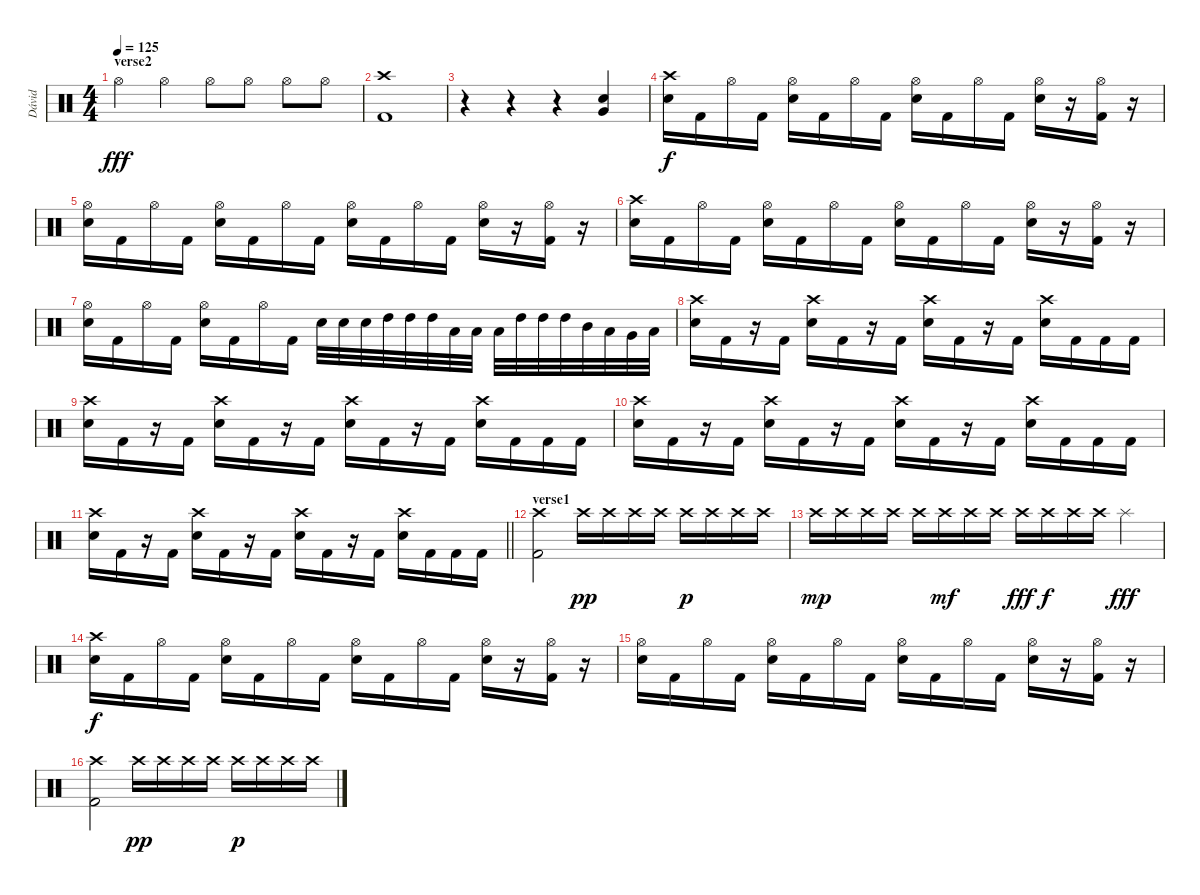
\track ("Dávid" "Dávid") {instrument percussion}
\staff {score}
\articulation defaults
\ts (4 4)
\section ("" "verse2")
\tempo 125
\clef neutral
\ks c "Hi-Hat (open)".4{dy fff} "Hi-Hat (open)".4 "Hi-Hat (open)".8 "Hi-Hat (open)".8 "Hi-Hat (open)".8 "Hi-Hat (open)".8
|
("Crash high (hit)" "Kick (hit) 2").1 |
r.4 r.4 r.4 ("Electric Snare (hit)" "Very Low Tom (hit)").4 |
("Crash high (hit)" "Electric Snare (hit)").16{dy f} "Kick (hit) 2".16 "Hi-Hat (open)".16 "Kick (hit) 2".16 ("Hi-Hat (open)" "Electric Snare (hit)").16 "Kick (hit) 2".16 "Hi-Hat (open)".16 "Kick (hit) 2".16 ("Hi-Hat (open)" "Electric Snare (hit)").16 "Kick (hit) 2".16 "Hi-Hat (open)".16 "Kick (hit) 2".16 ("Hi-Hat (open)" "Electric Snare (hit)").16 r.16 ("Hi-Hat (open)" "Kick (hit) 2").16 r.16 |
("Hi-Hat (open)" "Electric Snare (hit)").16 "Kick (hit) 2".16 "Hi-Hat (open)".16 "Kick (hit) 2".16 ("Hi-Hat (open)" "Electric Snare (hit)").16 "Kick (hit) 2".16 "Hi-Hat (open)".16 "Kick (hit) 2".16 ("Hi-Hat (open)" "Electric Snare (hit)").16 "Kick (hit) 2".16 "Hi-Hat (open)".16 "Kick (hit) 2".16 ("Hi-Hat (open)" "Electric Snare (hit)").16 r.16 ("Hi-Hat (open)" "Kick (hit) 2").16 r.16 |
("Crash high (hit)" "Electric Snare (hit)").16 "Kick (hit) 2".16 "Hi-Hat (open)".16 "Kick (hit) 2".16 ("Hi-Hat (open)" "Electric Snare (hit)").16 "Kick (hit) 2".16 "Hi-Hat (open)".16 "Kick (hit) 2".16 ("Hi-Hat (open)" "Electric Snare (hit)").16 "Kick (hit) 2".16 "Hi-Hat (open)".16 "Kick (hit) 2".16 ("Hi-Hat (open)" "Electric Snare (hit)").16 r.16 ("Hi-Hat (open)" "Kick (hit) 2").16 r.16 |
("Hi-Hat (open)" "Electric Snare (hit)").16 "Kick (hit) 2".16 "Hi-Hat (open)".16 "Kick (hit) 2".16 ("Hi-Hat (open)" "Electric Snare (hit)").16 "Kick (hit) 2".16 "Hi-Hat (open)".16 "Kick (hit) 2".16 "Electric Snare (hit)".32 "Electric Snare (hit)".32 "Electric Snare (hit)".32 "High Tom (hit)".32 "High Tom (hit)".32 "High Tom (hit)".32 "Low Tom (hit)".32 "Low Tom (hit)".32 "Low Tom (hit)".32 "High Tom (hit)".32 "High Tom (hit)".32 "High Tom (hit)".32 "Mid Tom (hit)".32 "Low Tom (hit)".32 "Very Low Tom (hit)".32 "Low Floor Tom (hit)".32 |
("Crash high (hit)" "Electric Snare (hit)").16 "Kick (hit) 2".16 r.16 "Kick (hit) 2".16 ("Crash high (hit)" "Electric Snare (hit)").16 "Kick (hit) 2".16 r.16 "Kick (hit) 2".16 ("Crash high (hit)" "Electric Snare (hit)").16 "Kick (hit) 2".16 r.16 "Kick (hit) 2".16 ("Crash high (hit)" "Electric Snare (hit)").16 "Kick (hit) 2".16 "Kick (hit) 2".16 "Kick (hit) 2".16 |
("Crash high (hit)" "Electric Snare (hit)").16 "Kick (hit) 2".16 r.16 "Kick (hit) 2".16 ("Crash high (hit)" "Electric Snare (hit)").16 "Kick (hit) 2".16 r.16 "Kick (hit) 2".16 ("Crash high (hit)" "Electric Snare (hit)").16 "Kick (hit) 2".16 r.16 "Kick (hit) 2".16 ("Crash high (hit)" "Electric Snare (hit)").16 "Kick (hit) 2".16 "Kick (hit) 2".16 "Kick (hit) 2".16 |
("Crash high (hit)" "Electric Snare (hit)").16 "Kick (hit) 2".16 r.16 "Kick (hit) 2".16 ("Crash high (hit)" "Electric Snare (hit)").16 "Kick (hit) 2".16 r.16 "Kick (hit) 2".16 ("Crash high (hit)" "Electric Snare (hit)").16 "Kick (hit) 2".16 r.16 "Kick (hit) 2".16 ("Crash high (hit)" "Electric Snare (hit)").16 "Kick (hit) 2".16 "Kick (hit) 2".16 "Kick (hit) 2".16 |
\barLineRight lightlight
("Crash high (hit)" "Electric Snare (hit)").16 "Kick (hit) 2".16 r.16 "Kick (hit) 2".16 ("Crash high (hit)" "Electric Snare (hit)").16 "Kick (hit) 2".16 r.16 "Kick (hit) 2".16 ("Crash high (hit)" "Electric Snare (hit)").16 "Kick (hit) 2".16 r.16 "Kick (hit) 2".16 ("Crash high (hit)" "Electric Snare (hit)").16 "Kick (hit) 2".16 "Kick (hit) 2".16 "Kick (hit) 2".16 |
\section ("" "verse1")
("Crash high (hit)" "Kick (hit) 2").2 "Crash high (hit)".16{dy pp} "Crash high (hit)".16 "Crash high (hit)".16 "Crash high (hit)".16 "Crash high (hit)".16{dy p} "Crash high (hit)".16 "Crash high (hit)".16 "Crash high (hit)".16 |
"Crash high (hit)".16{dy mp} "Crash high (hit)".16 "Crash high (hit)".16 "Crash high (hit)".16 "Crash high (hit)".16 "Crash high (hit)".16{dy mf} "Crash high (hit)".16 "Crash high (hit)".16 "Crash high (hit)".16{dy fff} "Crash high (hit)".16{dy f} "Crash high (hit)".16 "Crash high (hit)".16 "Splash (hit)".4{dy fff} |
("Crash high (hit)" "Electric Snare (hit)").16{dy f} "Kick (hit) 2".16 "Hi-Hat (open)".16 "Kick (hit) 2".16 ("Hi-Hat (open)" "Electric Snare (hit)").16 "Kick (hit) 2".16 "Hi-Hat (open)".16 "Kick (hit) 2".16 ("Hi-Hat (open)" "Electric Snare (hit)").16 "Kick (hit) 2".16 "Hi-Hat (open)".16 "Kick (hit) 2".16 ("Hi-Hat (open)" "Electric Snare (hit)").16 r.16 ("Hi-Hat (open)" "Kick (hit) 2").16 r.16 |
("Hi-Hat (open)" "Electric Snare (hit)").16 "Kick (hit) 2".16 "Hi-Hat (open)".16 "Kick (hit) 2".16 ("Hi-Hat (open)" "Electric Snare (hit)").16 "Kick (hit) 2".16 "Hi-Hat (open)".16 "Kick (hit) 2".16 ("Hi-Hat (open)" "Electric Snare (hit)").16 "Kick (hit) 2".16 "Hi-Hat (open)".16 "Kick (hit) 2".16 ("Hi-Hat (open)" "Electric Snare (hit)").16 r.16 ("Hi-Hat (open)" "Kick (hit) 2").16 r.16 |
("Crash high (hit)" "Kick (hit) 2").2 "Crash high (hit)".16{dy pp} "Crash high (hit)".16 "Crash high (hit)".16 "Crash high (hit)".16 "Crash high (hit)".16{dy p} "Crash high (hit)".16 "Crash high (hit)".16 "Crash high (hit)".16
